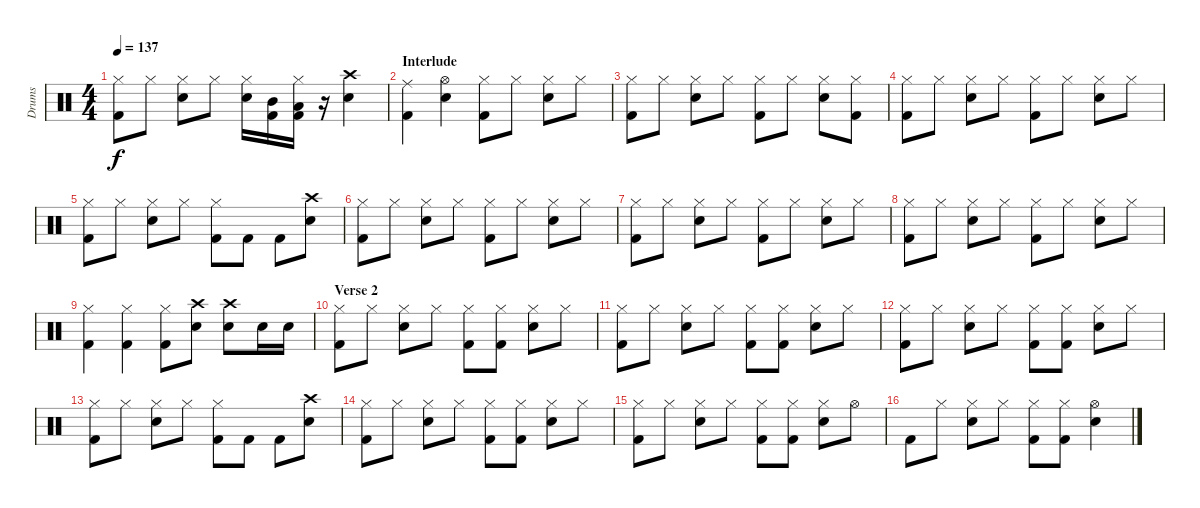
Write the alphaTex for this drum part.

\track ("Drums" "Drums") {instrument percussion}
\staff {score}
\articulation defaults
\ts (4 4)
\tempo 137
\clef neutral
\ks c
("Hi-Hat (closed)" "Kick (hit) 2").8{dy f} "Hi-Hat (closed)".8 ("Hi-Hat (closed)" "Snare (hit) 2").8 "Hi-Hat (closed)".8 ("Hi-Hat (closed)" "Snare (hit) 2").16 ("Mid Tom (hit)" "Kick (hit) 2").16 ("Hi-Hat (closed)" "Low Tom (hit)" "Kick (hit) 2").16 r.16 ("Crash high (hit)" "Snare (hit) 2").4 |
\section ("" "Interlude")
("Ride (middle)" "Kick (hit) 2").4 ("Hi-Hat (open)" "Snare (hit) 2").4 ("Hi-Hat (closed)" "Kick (hit) 2").8 "Hi-Hat (closed)".8 ("Hi-Hat (closed)" "Snare (hit) 2").8 "Hi-Hat (closed)".8 |
("Hi-Hat (closed)" "Kick (hit) 2").8 "Hi-Hat (closed)".8 ("Hi-Hat (closed)" "Snare (hit) 2").8 "Hi-Hat (closed)".8 ("Hi-Hat (closed)" "Kick (hit) 2").8 "Hi-Hat (closed)".8 ("Hi-Hat (closed)" "Snare (hit) 2").8 ("Hi-Hat (closed)" "Kick (hit) 2").8 |
("Hi-Hat (closed)" "Kick (hit) 2").8 "Hi-Hat (closed)".8 ("Hi-Hat (closed)" "Snare (hit) 2").8 "Hi-Hat (closed)".8 ("Hi-Hat (closed)" "Kick (hit) 2").8 "Hi-Hat (closed)".8 ("Hi-Hat (closed)" "Snare (hit) 2").8 "Hi-Hat (closed)".8 |
("Hi-Hat (closed)" "Kick (hit) 2").8 "Hi-Hat (closed)".8 ("Hi-Hat (closed)" "Snare (hit) 2").8 "Hi-Hat (closed)".8 ("Hi-Hat (closed)" "Kick (hit) 2").8 "Kick (hit) 2".8 "Kick (hit) 2".8 ("Crash high (hit)" "Snare (hit) 2").8 |
("Hi-Hat (closed)" "Kick (hit) 2").8 "Hi-Hat (closed)".8 ("Hi-Hat (closed)" "Snare (hit) 2").8 "Hi-Hat (closed)".8 ("Hi-Hat (closed)" "Kick (hit) 2").8 "Hi-Hat (closed)".8 ("Hi-Hat (closed)" "Snare (hit) 2").8 "Hi-Hat (closed)".8 |
("Hi-Hat (closed)" "Kick (hit) 2").8 "Hi-Hat (closed)".8 ("Hi-Hat (closed)" "Snare (hit) 2").8 "Hi-Hat (closed)".8 ("Hi-Hat (closed)" "Kick (hit) 2").8 "Hi-Hat (closed)".8 ("Hi-Hat (closed)" "Snare (hit) 2").8 "Hi-Hat (closed)".8 |
("Hi-Hat (closed)" "Kick (hit) 2").8 "Hi-Hat (closed)".8 ("Hi-Hat (closed)" "Snare (hit) 2").8 "Hi-Hat (closed)".8 ("Hi-Hat (closed)" "Kick (hit) 2").8 "Hi-Hat (closed)".8 ("Hi-Hat (closed)" "Snare (hit) 2").8 "Hi-Hat (closed)".8 |
("Hi-Hat (closed)" "Kick (hit) 2").4 ("Hi-Hat (closed)" "Kick (hit) 2").4 ("Hi-Hat (closed)" "Kick (hit) 2").8 ("Crash high (hit)" "Snare (hit) 2").8 ("Crash high (hit)" "Snare (hit) 2").8 "Snare (hit) 2".16 "Snare (hit) 2".16 |
\section ("" "Verse 2")
("Hi-Hat (closed)" "Kick (hit) 2").8 "Hi-Hat (closed)".8 ("Hi-Hat (closed)" "Snare (hit) 2").8 "Hi-Hat (closed)".8 ("Hi-Hat (closed)" "Kick (hit) 2").8 ("Hi-Hat (closed)" "Kick (hit) 2").8 ("Hi-Hat (closed)" "Snare (hit) 2").8 "Hi-Hat (closed)".8 |
("Hi-Hat (closed)" "Kick (hit) 2").8 "Hi-Hat (closed)".8 ("Hi-Hat (closed)" "Snare (hit) 2").8 "Hi-Hat (closed)".8 ("Hi-Hat (closed)" "Kick (hit) 2").8 ("Hi-Hat (closed)" "Kick (hit) 2").8 ("Hi-Hat (closed)" "Snare (hit) 2").8 "Hi-Hat (closed)".8 |
("Hi-Hat (closed)" "Kick (hit) 2").8 "Hi-Hat (closed)".8 ("Hi-Hat (closed)" "Snare (hit) 2").8 "Hi-Hat (closed)".8 ("Hi-Hat (closed)" "Kick (hit) 2").8 ("Hi-Hat (closed)" "Kick (hit) 2").8 ("Hi-Hat (closed)" "Snare (hit) 2").8 "Hi-Hat (closed)".8 |
("Hi-Hat (closed)" "Kick (hit) 2").8 "Hi-Hat (closed)".8 ("Hi-Hat (closed)" "Snare (hit) 2").8 "Hi-Hat (closed)".8 ("Hi-Hat (closed)" "Kick (hit) 2").8 "Kick (hit) 2".8 "Kick (hit) 2".8 ("Crash high (hit)" "Snare (hit) 2").8 |
("Hi-Hat (closed)" "Kick (hit) 2").8 "Hi-Hat (closed)".8 ("Hi-Hat (closed)" "Snare (hit) 2").8 "Hi-Hat (closed)".8 ("Hi-Hat (closed)" "Kick (hit) 2").8 ("Hi-Hat (closed)" "Kick (hit) 2").8 ("Hi-Hat (closed)" "Snare (hit) 2").8 "Hi-Hat (closed)".8 |
("Hi-Hat (closed)" "Kick (hit) 2").8 "Hi-Hat (closed)".8 ("Hi-Hat (closed)" "Snare (hit) 2").8 "Hi-Hat (closed)".8 ("Hi-Hat (closed)" "Kick (hit) 2").8 ("Hi-Hat (closed)" "Kick (hit) 2").8 ("Hi-Hat (closed)" "Snare (hit) 2").8 "Hi-Hat (open)".8 |
"Kick (hit) 2".8 "Hi-Hat (closed)".8 ("Hi-Hat (closed)" "Snare (hit) 2").8 "Hi-Hat (closed)".8 ("Hi-Hat (closed)" "Kick (hit) 2").8 ("Hi-Hat (closed)" "Kick (hit) 2").8 ("Hi-Hat (open)" "Snare (hit) 2").4
